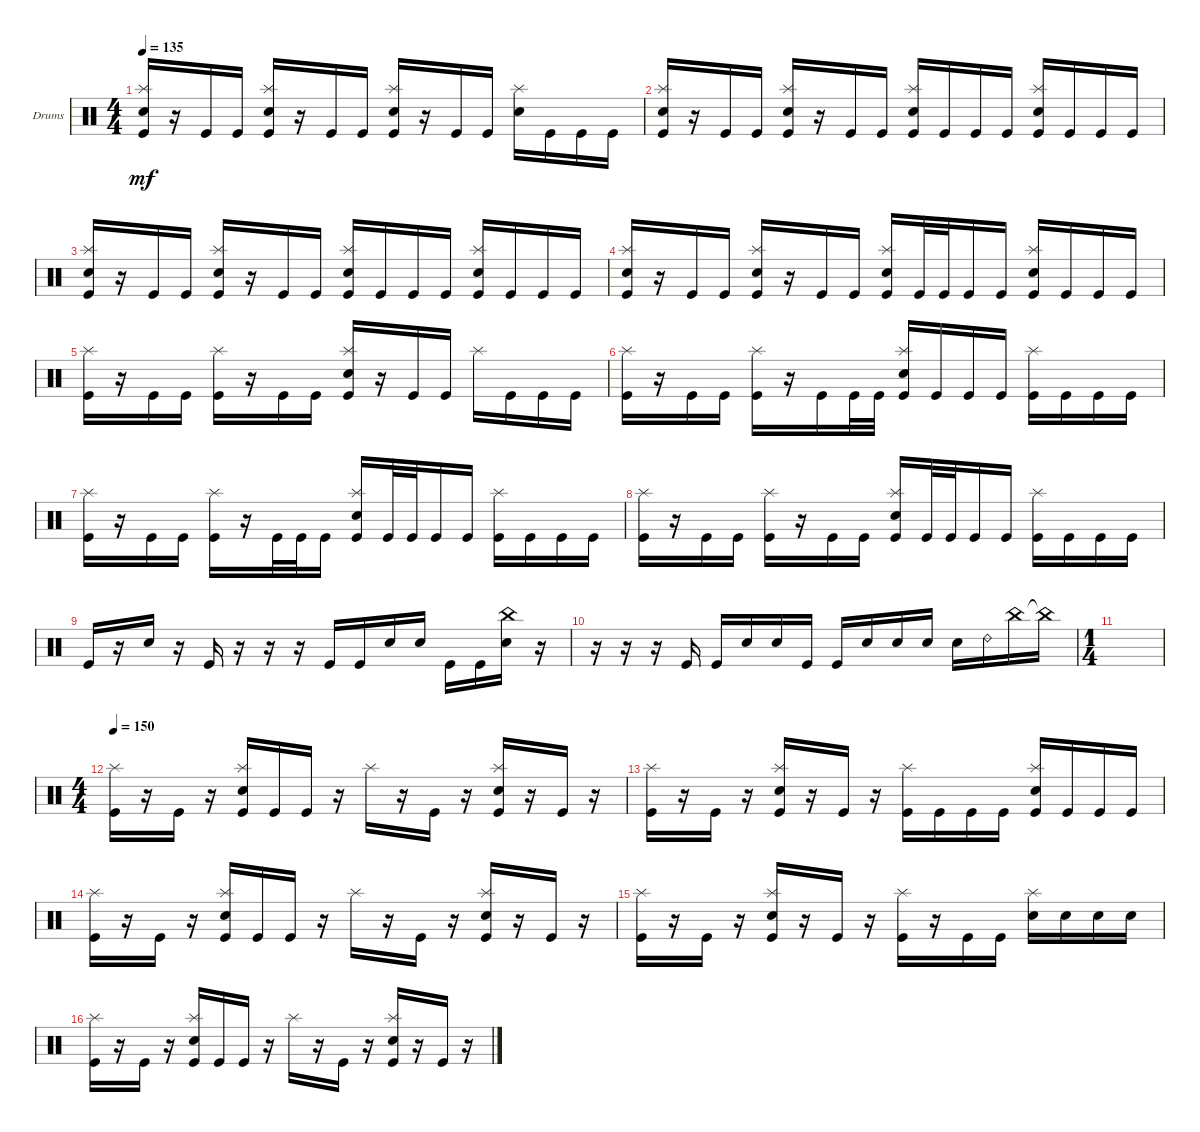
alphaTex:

\defaultSystemsLayout 4
\bracketExtendMode groupsimilarinstruments
\firstSystemTrackNameOrientation horizontal
\otherSystemsTrackNameOrientation horizontal
\track ("Drumkit" "Drums") {instrument percussion}
\staff {score}
\articulation defaults
\ts (4 4)
\tempo 135
\clef neutral
\ks c
("Kick (hit)" "Splash (hit)" "Snare (hit) 2").16{dy mf} r.16 "Kick (hit)".16 "Kick (hit)".16 ("Kick (hit)" "Splash (hit)" "Snare (hit) 2").16 r.16 "Kick (hit)".16 "Kick (hit)".16 ("Kick (hit)" "Splash (hit)" "Snare (hit) 2").16 r.16 "Kick (hit)".16 "Kick (hit)".16 ("Splash (hit)" "Snare (hit) 2").16 "Kick (hit)".16 "Kick (hit)".16 "Kick (hit)".16 |
("Kick (hit)" "Splash (hit)" "Snare (hit) 2").16 r.16 "Kick (hit)".16 "Kick (hit)".16 ("Kick (hit)" "Splash (hit)" "Snare (hit) 2").16 r.16 "Kick (hit)".16 "Kick (hit)".16 ("Kick (hit)" "Splash (hit)" "Snare (hit) 2").16 "Kick (hit)".16 "Kick (hit)".16 "Kick (hit)".16 ("Kick (hit)" "Splash (hit)" "Snare (hit) 2").16 "Kick (hit)".16 "Kick (hit)".16 "Kick (hit)".16 |
("Kick (hit)" "Splash (hit)" "Snare (hit) 2").16 r.16 "Kick (hit)".16 "Kick (hit)".16 ("Kick (hit)" "Splash (hit)" "Snare (hit) 2").16 r.16 "Kick (hit)".16 "Kick (hit)".16 ("Kick (hit)" "Splash (hit)" "Snare (hit) 2").16 "Kick (hit)".16 "Kick (hit)".16 "Kick (hit)".16 ("Kick (hit)" "Splash (hit)" "Snare (hit) 2").16 "Kick (hit)".16 "Kick (hit)".16 "Kick (hit)".16 |
("Kick (hit)" "Splash (hit)" "Snare (hit) 2").16 r.16 "Kick (hit)".16 "Kick (hit)".16 ("Kick (hit)" "Splash (hit)" "Snare (hit) 2").16 r.16 "Kick (hit)".16 "Kick (hit)".16 ("Kick (hit)" "Splash (hit)" "Snare (hit) 2").16 "Kick (hit)".32 "Kick (hit)".32 "Kick (hit)".16 "Kick (hit)".16 ("Kick (hit)" "Splash (hit)" "Snare (hit) 2").16 "Kick (hit)".16 "Kick (hit)".16 "Kick (hit)".16 |
("Kick (hit)" "Splash (hit)").16 r.16 "Kick (hit)".16 "Kick (hit)".16 ("Kick (hit)" "Splash (hit)").16 r.16 "Kick (hit)".16 "Kick (hit)".16 ("Kick (hit)" "Splash (hit)" "Snare (hit) 2").16 r.16 "Kick (hit)".16 "Kick (hit)".16 "Splash (hit)".16 "Kick (hit)".16 "Kick (hit)".16 "Kick (hit)".16 |
("Kick (hit)" "Splash (hit)").16 r.16 "Kick (hit)".16 "Kick (hit)".16 ("Kick (hit)" "Splash (hit)").16 r.16 "Kick (hit)".16 "Kick (hit)".32 "Kick (hit)".32 ("Kick (hit)" "Splash (hit)" "Snare (hit) 2").16 "Kick (hit)".16 "Kick (hit)".16 "Kick (hit)".16 ("Kick (hit)" "Splash (hit)").16 "Kick (hit)".16 "Kick (hit)".16 "Kick (hit)".16 |
("Kick (hit)" "Splash (hit)").16 r.16 "Kick (hit)".16 "Kick (hit)".16 ("Kick (hit)" "Splash (hit)").16 r.16 "Kick (hit)".32 "Kick (hit)".32 "Kick (hit)".16 ("Kick (hit)" "Splash (hit)" "Snare (hit) 2").16 "Kick (hit)".32 "Kick (hit)".32 "Kick (hit)".16 "Kick (hit)".16 ("Kick (hit)" "Splash (hit)").16 "Kick (hit)".16 "Kick (hit)".16 "Kick (hit)".16 |
("Kick (hit)" "Splash (hit)").16 r.16 "Kick (hit)".16 "Kick (hit)".16 ("Kick (hit)" "Splash (hit)").16 r.16 "Kick (hit)".16 "Kick (hit)".16 ("Kick (hit)" "Splash (hit)" "Snare (hit) 2").16 "Kick (hit)".32 "Kick (hit)".32 "Kick (hit)".16 "Kick (hit)".16 ("Kick (hit)" "Splash (hit)").16 "Kick (hit)".16 "Kick (hit)".16 "Kick (hit)".16 |
"Kick (hit)".16 r.16 "Snare (hit) 2".16 r.16 "Kick (hit)".16 r.16 r.16 r.16 "Kick (hit)".16 "Kick (hit)".16 "Snare (hit) 2".16 "Snare (hit) 2".16 "Kick (hit)".16 "Kick (hit)".16 ("Snare (hit) 2" "China (hit)").16 r.16 |
r.16 r.16 r.16 "Kick (hit)".16 "Kick (hit)".16 "Snare (hit) 2".16 "Snare (hit) 2".16 "Kick (hit)".16 "Kick (hit)".16 "Snare (hit) 2".16 "Snare (hit) 2".16 "Snare (hit) 2".16 "Snare (hit) 2".16 "Ride (bell) 2".16 "China (hit)".16 "China (hit)"{t}.16 |
\ts (1 4)
|
\ts (4 4)
\tempo 150
("Splash (hit)" "Kick (hit)").16 r.16 "Kick (hit)".16 r.16 ("Splash (hit)" "Kick (hit)" "Snare (hit) 2").16 "Kick (hit)".16 "Kick (hit)".16 r.16 "Splash (hit)".16 r.16 "Kick (hit)".16 r.16 ("Splash (hit)" "Kick (hit)" "Snare (hit) 2").16 r.16 "Kick (hit)".16 r.16 |
("Splash (hit)" "Kick (hit)").16 r.16 "Kick (hit)".16 r.16 ("Splash (hit)" "Kick (hit)" "Snare (hit) 2").16 r.16 "Kick (hit)".16 r.16 ("Splash (hit)" "Kick (hit)").16 "Kick (hit)".16 "Kick (hit)".16 "Kick (hit)".16 ("Splash (hit)" "Kick (hit)" "Snare (hit) 2").16 "Kick (hit)".16 "Kick (hit)".16 "Kick (hit)".16 |
("Splash (hit)" "Kick (hit)").16 r.16 "Kick (hit)".16 r.16 ("Splash (hit)" "Kick (hit)" "Snare (hit) 2").16 "Kick (hit)".16 "Kick (hit)".16 r.16 "Splash (hit)".16 r.16 "Kick (hit)".16 r.16 ("Splash (hit)" "Kick (hit)" "Snare (hit) 2").16 r.16 "Kick (hit)".16 r.16 |
("Splash (hit)" "Kick (hit)").16 r.16 "Kick (hit)".16 r.16 ("Splash (hit)" "Kick (hit)" "Snare (hit) 2").16 r.16 "Kick (hit)".16 r.16 ("Splash (hit)" "Kick (hit)").16 r.16 "Kick (hit)".16 "Kick (hit)".16 ("Splash (hit)" "Snare (hit) 2").16 "Snare (hit) 2".16 "Snare (hit) 2".16 "Snare (hit) 2".16 |
("Splash (hit)" "Kick (hit)").16 r.16 "Kick (hit)".16 r.16 ("Splash (hit)" "Kick (hit)" "Snare (hit) 2").16 "Kick (hit)".16 "Kick (hit)".16 r.16 "Splash (hit)".16 r.16 "Kick (hit)".16 r.16 ("Splash (hit)" "Kick (hit)" "Snare (hit) 2").16 r.16 "Kick (hit)".16 r.16
